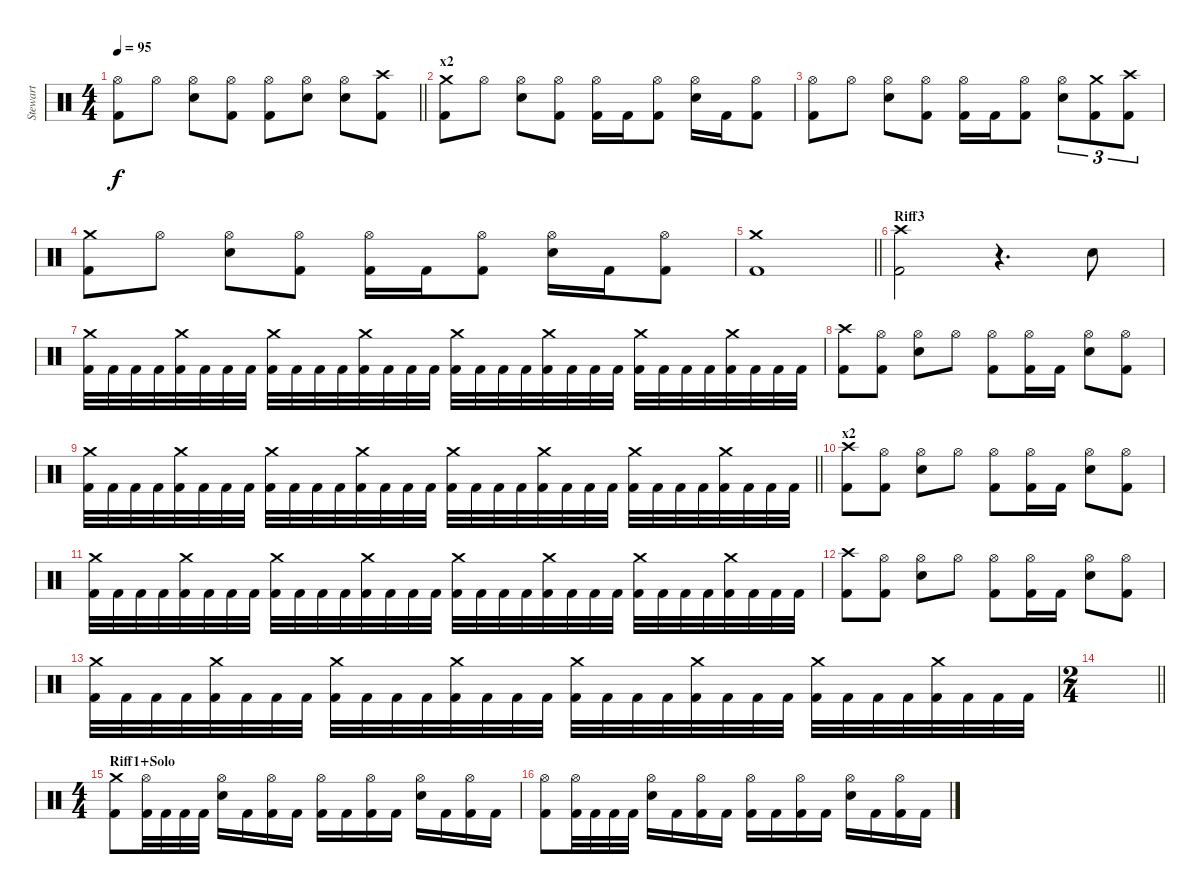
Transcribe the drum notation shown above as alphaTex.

\track ("Stewart" "Stewart") {instrument percussion}
\staff {score}
\articulation defaults
\ts (4 4)
\tempo 95
\clef neutral
\barLineRight lightlight
\ks c
("Hi-Hat (open)" "Kick (hit) 2").8{dy f} "Hi-Hat (open)".8 ("Hi-Hat (open)" "Electric Snare (hit)").8 ("Hi-Hat (open)" "Kick (hit) 2").8 ("Hi-Hat (open)" "Kick (hit) 2").8 ("Hi-Hat (open)" "Electric Snare (hit)").8 ("Hi-Hat (open)" "Electric Snare (hit)").8 ("Crash high (hit)" "Kick (hit) 2").8 |
\section ("" "x2")
("Crash medium (hit)" "Kick (hit) 2").8 "Hi-Hat (open)".8 ("Hi-Hat (open)" "Electric Snare (hit)").8 ("Hi-Hat (open)" "Kick (hit) 2").8 ("Hi-Hat (open)" "Kick (hit) 2").16 "Kick (hit) 2".16 ("Hi-Hat (open)" "Kick (hit) 2").8 ("Hi-Hat (open)" "Electric Snare (hit)").16 "Kick (hit) 2".16 ("Hi-Hat (open)" "Kick (hit) 2").8 |
("Hi-Hat (open)" "Kick (hit) 2").8 "Hi-Hat (open)".8 ("Hi-Hat (open)" "Electric Snare (hit)").8 ("Hi-Hat (open)" "Kick (hit) 2").8 ("Hi-Hat (open)" "Kick (hit) 2").16 "Kick (hit) 2".16 ("Hi-Hat (open)" "Kick (hit) 2").8 ("Hi-Hat (open)" "Electric Snare (hit)").8{tu (3 2)} ("Crash medium (hit)" "Kick (hit) 2").8{tu (3 2)} ("Crash high (hit)" "Kick (hit) 2").8{tu (3 2)} |
("Crash medium (hit)" "Kick (hit) 2").8 "Hi-Hat (open)".8 ("Hi-Hat (open)" "Electric Snare (hit)").8 ("Hi-Hat (open)" "Kick (hit) 2").8 ("Hi-Hat (open)" "Kick (hit) 2").16 "Kick (hit) 2".16 ("Hi-Hat (open)" "Kick (hit) 2").8 ("Hi-Hat (open)" "Electric Snare (hit)").16 "Kick (hit) 2".16 ("Hi-Hat (open)" "Kick (hit) 2").8 |
\barLineRight lightlight
("Crash medium (hit)" "Kick (hit) 2").1 |
\section ("" "Riff3")
("Crash high (hit)" "Kick (hit) 2").2 r.4{d} "Electric Snare (hit)".8 |
("Crash medium (hit)" "Kick (hit) 2").32 "Kick (hit) 2".32 "Kick (hit) 2".32 "Kick (hit) 2".32 ("Crash medium (hit)" "Kick (hit) 2").32 "Kick (hit) 2".32 "Kick (hit) 2".32 "Kick (hit) 2".32 ("Crash medium (hit)" "Kick (hit) 2").32 "Kick (hit) 2".32 "Kick (hit) 2".32 "Kick (hit) 2".32 ("Crash medium (hit)" "Kick (hit) 2").32 "Kick (hit) 2".32 "Kick (hit) 2".32 "Kick (hit) 2".32 ("Crash medium (hit)" "Kick (hit) 2").32 "Kick (hit) 2".32 "Kick (hit) 2".32 "Kick (hit) 2".32 ("Crash medium (hit)" "Kick (hit) 2").32 "Kick (hit) 2".32 "Kick (hit) 2".32 "Kick (hit) 2".32 ("Crash medium (hit)" "Kick (hit) 2").32 "Kick (hit) 2".32 "Kick (hit) 2".32 "Kick (hit) 2".32 ("Crash medium (hit)" "Kick (hit) 2").32 "Kick (hit) 2".32 "Kick (hit) 2".32 "Kick (hit) 2".32 |
("Crash high (hit)" "Kick (hit) 2").8 ("Hi-Hat (open)" "Kick (hit) 2").8 ("Hi-Hat (open)" "Electric Snare (hit)").8 "Hi-Hat (open)".8 ("Hi-Hat (open)" "Kick (hit) 2").8 ("Hi-Hat (open)" "Kick (hit) 2").16 "Kick (hit) 2".16 ("Hi-Hat (open)" "Electric Snare (hit)").8 ("Hi-Hat (open)" "Kick (hit) 2").8 |
\barLineRight lightlight
("Crash medium (hit)" "Kick (hit) 2").32 "Kick (hit) 2".32 "Kick (hit) 2".32 "Kick (hit) 2".32 ("Crash medium (hit)" "Kick (hit) 2").32 "Kick (hit) 2".32 "Kick (hit) 2".32 "Kick (hit) 2".32 ("Crash medium (hit)" "Kick (hit) 2").32 "Kick (hit) 2".32 "Kick (hit) 2".32 "Kick (hit) 2".32 ("Crash medium (hit)" "Kick (hit) 2").32 "Kick (hit) 2".32 "Kick (hit) 2".32 "Kick (hit) 2".32 ("Crash medium (hit)" "Kick (hit) 2").32 "Kick (hit) 2".32 "Kick (hit) 2".32 "Kick (hit) 2".32 ("Crash medium (hit)" "Kick (hit) 2").32 "Kick (hit) 2".32 "Kick (hit) 2".32 "Kick (hit) 2".32 ("Crash medium (hit)" "Kick (hit) 2").32 "Kick (hit) 2".32 "Kick (hit) 2".32 "Kick (hit) 2".32 ("Crash medium (hit)" "Kick (hit) 2").32 "Kick (hit) 2".32 "Kick (hit) 2".32 "Kick (hit) 2".32 |
\section ("" "x2")
("Crash high (hit)" "Kick (hit) 2").8 ("Hi-Hat (open)" "Kick (hit) 2").8 ("Hi-Hat (open)" "Electric Snare (hit)").8 "Hi-Hat (open)".8 ("Hi-Hat (open)" "Kick (hit) 2").8 ("Hi-Hat (open)" "Kick (hit) 2").16 "Kick (hit) 2".16 ("Hi-Hat (open)" "Electric Snare (hit)").8 ("Hi-Hat (open)" "Kick (hit) 2").8 |
("Crash medium (hit)" "Kick (hit) 2").32 "Kick (hit) 2".32 "Kick (hit) 2".32 "Kick (hit) 2".32 ("Crash medium (hit)" "Kick (hit) 2").32 "Kick (hit) 2".32 "Kick (hit) 2".32 "Kick (hit) 2".32 ("Crash medium (hit)" "Kick (hit) 2").32 "Kick (hit) 2".32 "Kick (hit) 2".32 "Kick (hit) 2".32 ("Crash medium (hit)" "Kick (hit) 2").32 "Kick (hit) 2".32 "Kick (hit) 2".32 "Kick (hit) 2".32 ("Crash medium (hit)" "Kick (hit) 2").32 "Kick (hit) 2".32 "Kick (hit) 2".32 "Kick (hit) 2".32 ("Crash medium (hit)" "Kick (hit) 2").32 "Kick (hit) 2".32 "Kick (hit) 2".32 "Kick (hit) 2".32 ("Crash medium (hit)" "Kick (hit) 2").32 "Kick (hit) 2".32 "Kick (hit) 2".32 "Kick (hit) 2".32 ("Crash medium (hit)" "Kick (hit) 2").32 "Kick (hit) 2".32 "Kick (hit) 2".32 "Kick (hit) 2".32 |
("Crash high (hit)" "Kick (hit) 2").8 ("Hi-Hat (open)" "Kick (hit) 2").8 ("Hi-Hat (open)" "Electric Snare (hit)").8 "Hi-Hat (open)".8 ("Hi-Hat (open)" "Kick (hit) 2").8 ("Hi-Hat (open)" "Kick (hit) 2").16 "Kick (hit) 2".16 ("Hi-Hat (open)" "Electric Snare (hit)").8 ("Hi-Hat (open)" "Kick (hit) 2").8 |
("Crash medium (hit)" "Kick (hit) 2").32 "Kick (hit) 2".32 "Kick (hit) 2".32 "Kick (hit) 2".32 ("Crash medium (hit)" "Kick (hit) 2").32 "Kick (hit) 2".32 "Kick (hit) 2".32 "Kick (hit) 2".32 ("Crash medium (hit)" "Kick (hit) 2").32 "Kick (hit) 2".32 "Kick (hit) 2".32 "Kick (hit) 2".32 ("Crash medium (hit)" "Kick (hit) 2").32 "Kick (hit) 2".32 "Kick (hit) 2".32 "Kick (hit) 2".32 ("Crash medium (hit)" "Kick (hit) 2").32 "Kick (hit) 2".32 "Kick (hit) 2".32 "Kick (hit) 2".32 ("Crash medium (hit)" "Kick (hit) 2").32 "Kick (hit) 2".32 "Kick (hit) 2".32 "Kick (hit) 2".32 ("Crash medium (hit)" "Kick (hit) 2").32 "Kick (hit) 2".32 "Kick (hit) 2".32 "Kick (hit) 2".32 ("Crash medium (hit)" "Kick (hit) 2").32 "Kick (hit) 2".32 "Kick (hit) 2".32 "Kick (hit) 2".32 |
\ts (2 4)
\barLineRight lightlight
|
\ts (4 4)
\section ("" "Riff1+Solo")
("Crash medium (hit)" "Kick (hit) 2").8 ("Hi-Hat (open)" "Kick (hit) 2").32 "Kick (hit) 2".32 "Kick (hit) 2".32 "Kick (hit) 2".32 ("Hi-Hat (open)" "Electric Snare (hit)").16 "Kick (hit) 2".16 ("Hi-Hat (open)" "Kick (hit) 2").16 "Kick (hit) 2".16 ("Hi-Hat (open)" "Kick (hit) 2").16 "Kick (hit) 2".16 ("Hi-Hat (open)" "Kick (hit) 2").16 "Kick (hit) 2".16 ("Hi-Hat (open)" "Electric Snare (hit)").16 "Kick (hit) 2".16 ("Hi-Hat (open)" "Kick (hit) 2").16 "Kick (hit) 2".16 |
("Hi-Hat (open)" "Kick (hit) 2").8 ("Hi-Hat (open)" "Kick (hit) 2").32 "Kick (hit) 2".32 "Kick (hit) 2".32 "Kick (hit) 2".32 ("Hi-Hat (open)" "Electric Snare (hit)").16 "Kick (hit) 2".16 ("Hi-Hat (open)" "Kick (hit) 2").16 "Kick (hit) 2".16 ("Hi-Hat (open)" "Kick (hit) 2").16 "Kick (hit) 2".16 ("Hi-Hat (open)" "Kick (hit) 2").16 "Kick (hit) 2".16 ("Hi-Hat (open)" "Electric Snare (hit)").16 "Kick (hit) 2".16 ("Hi-Hat (open)" "Kick (hit) 2").16 "Kick (hit) 2".16
